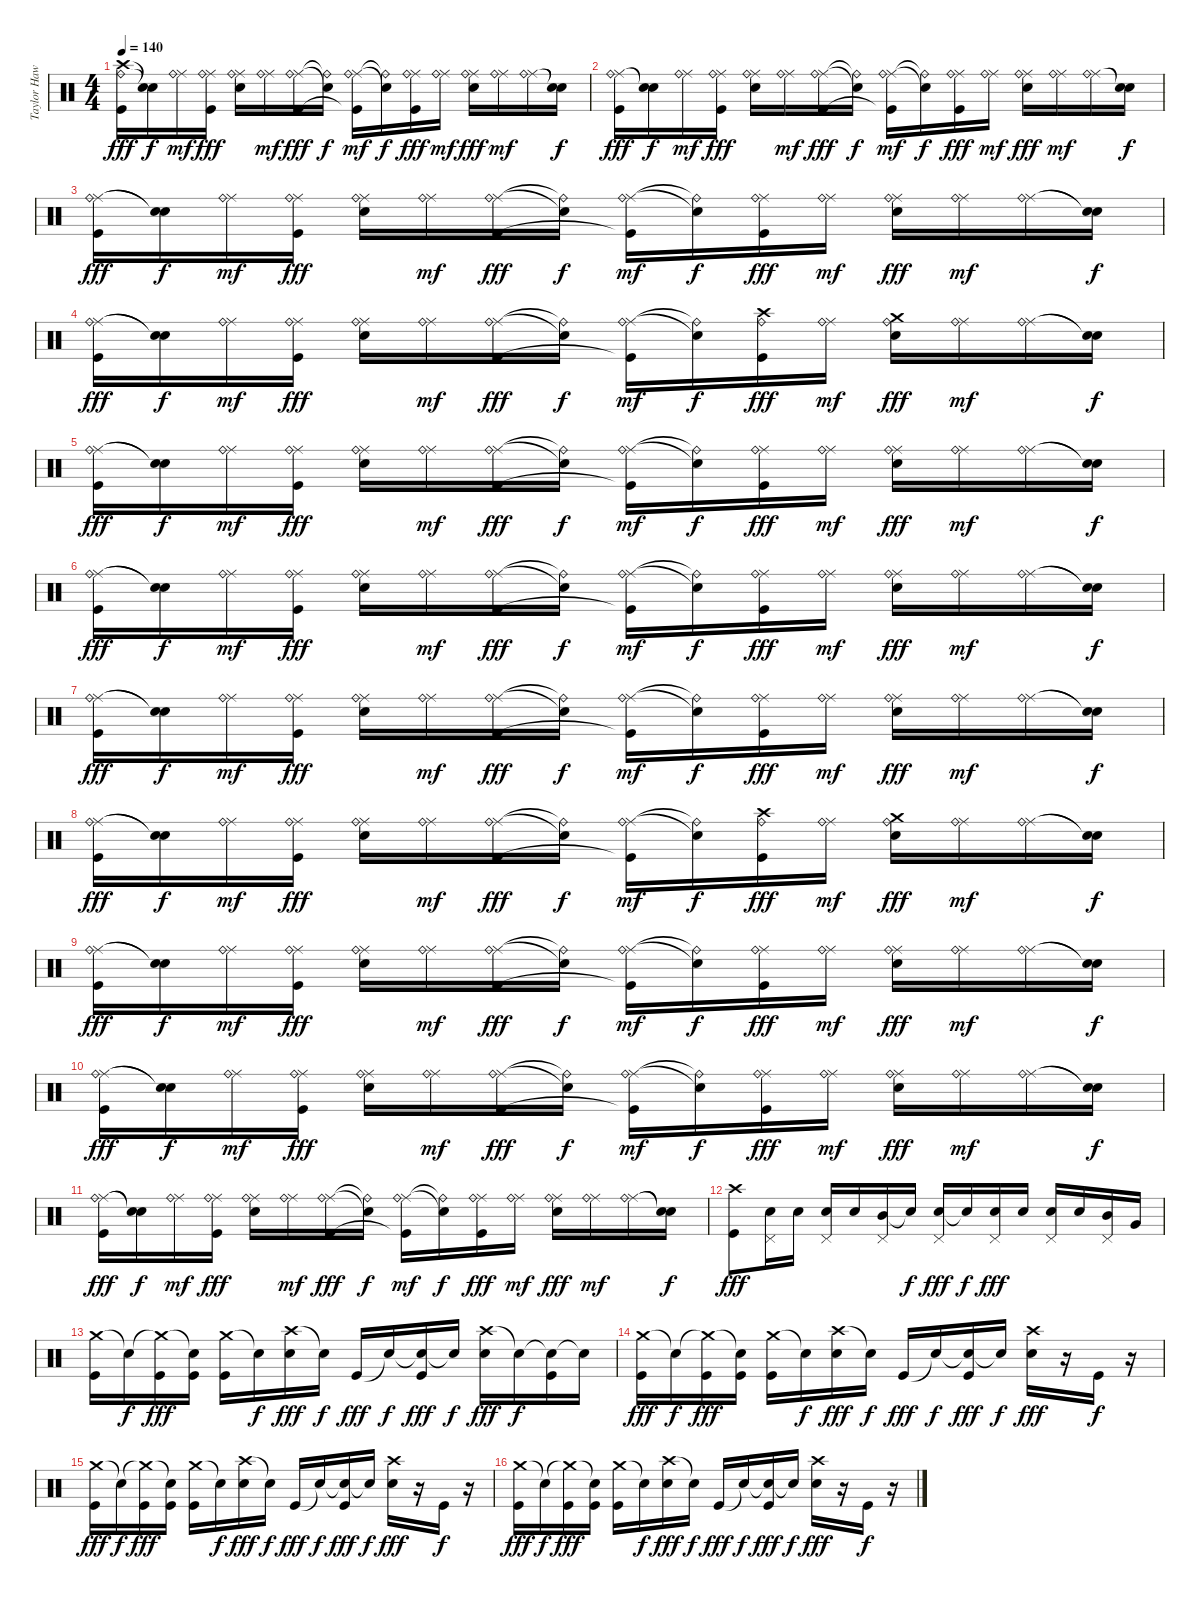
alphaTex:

\track ("Taylor Hawkings (Batería)" "Taylor Haw") {instrument percussion}
\staff {score}
\articulation defaults
\ts (4 4)
\tempo 140
\clef neutral
\ks c
("Crash high (hit)" "Ride (bell)" "Kick (hit)").16{dy fff} ("Snare (hit)"{t} "Snare (hit)"{t}).16{dy f} ("Ride (middle)" "Ride (bell)").16{dy mf} ("Ride (middle)" "Ride (bell)" "Kick (hit)").16{dy fff} ("Ride (middle)" "Ride (bell)" "Electric Snare (hit)").16 ("Ride (middle)" "Ride (bell)").16{dy mf} ("Ride (middle)" "Ride (bell)" "Kick (hit)").16{dy fff} ("Snare (hit)"{t} "Ride (bell)"{t}).16{dy f} ("Ride (middle)" "Ride (bell)" "Kick (hit)"{t}).16{dy mf} ("Snare (hit)"{t} "Ride (bell)"{t}).16{dy f} ("Ride (middle)" "Ride (bell)" "Kick (hit)").16{dy fff} ("Ride (middle)" "Ride (bell)").16{dy mf} ("Ride (middle)" "Ride (bell)" "Electric Snare (hit)").16{dy fff} ("Ride (middle)" "Ride (bell)").16{dy mf} ("Ride (middle)" "Ride (bell)").16 ("Snare (hit)"{t} "Snare (hit)"{t}).16{dy f} |
("Ride (middle)" "Ride (bell)" "Kick (hit)").16{dy fff} ("Snare (hit)"{t} "Snare (hit)"{t}).16{dy f} ("Ride (middle)" "Ride (bell)").16{dy mf} ("Ride (middle)" "Ride (bell)" "Kick (hit)").16{dy fff} ("Ride (middle)" "Ride (bell)" "Electric Snare (hit)").16 ("Ride (middle)" "Ride (bell)").16{dy mf} ("Ride (middle)" "Ride (bell)" "Kick (hit)").16{dy fff} ("Snare (hit)"{t} "Ride (bell)"{t}).16{dy f} ("Ride (middle)" "Ride (bell)" "Kick (hit)"{t}).16{dy mf} ("Snare (hit)"{t} "Ride (bell)"{t}).16{dy f} ("Ride (middle)" "Ride (bell)" "Kick (hit)").16{dy fff} ("Ride (middle)" "Ride (bell)").16{dy mf} ("Ride (middle)" "Ride (bell)" "Electric Snare (hit)").16{dy fff} ("Ride (middle)" "Ride (bell)").16{dy mf} ("Ride (middle)" "Ride (bell)").16 ("Snare (hit)"{t} "Snare (hit)"{t}).16{dy f} |
("Ride (middle)" "Ride (bell)" "Kick (hit)").16{dy fff} ("Snare (hit)"{t} "Snare (hit)"{t}).16{dy f} ("Ride (middle)" "Ride (bell)").16{dy mf} ("Ride (middle)" "Ride (bell)" "Kick (hit)").16{dy fff} ("Ride (middle)" "Ride (bell)" "Electric Snare (hit)").16 ("Ride (middle)" "Ride (bell)").16{dy mf} ("Ride (middle)" "Ride (bell)" "Kick (hit)").16{dy fff} ("Snare (hit)"{t} "Ride (bell)"{t}).16{dy f} ("Ride (middle)" "Ride (bell)" "Kick (hit)"{t}).16{dy mf} ("Snare (hit)"{t} "Ride (bell)"{t}).16{dy f} ("Ride (middle)" "Ride (bell)" "Kick (hit)").16{dy fff} ("Ride (middle)" "Ride (bell)").16{dy mf} ("Ride (middle)" "Ride (bell)" "Electric Snare (hit)").16{dy fff} ("Ride (middle)" "Ride (bell)").16{dy mf} ("Ride (middle)" "Ride (bell)").16 ("Snare (hit)"{t} "Snare (hit)"{t}).16{dy f} |
("Ride (middle)" "Ride (bell)" "Kick (hit)").16{dy fff} ("Snare (hit)"{t} "Snare (hit)"{t}).16{dy f} ("Ride (middle)" "Ride (bell)").16{dy mf} ("Ride (middle)" "Ride (bell)" "Kick (hit)").16{dy fff} ("Ride (middle)" "Ride (bell)" "Electric Snare (hit)").16 ("Ride (middle)" "Ride (bell)").16{dy mf} ("Ride (middle)" "Ride (bell)" "Kick (hit)").16{dy fff} ("Snare (hit)"{t} "Ride (bell)"{t}).16{dy f} ("Ride (middle)" "Ride (bell)" "Kick (hit)"{t}).16{dy mf} ("Snare (hit)"{t} "Ride (bell)"{t}).16{dy f} ("Crash high (hit)" "Ride (bell)" "Kick (hit)").16{dy fff} ("Ride (middle)" "Ride (bell)").16{dy mf} ("Crash medium (hit)" "Ride (bell)" "Electric Snare (hit)").16{dy fff} ("Ride (middle)" "Ride (bell)").16{dy mf} ("Ride (middle)" "Ride (bell)").16 ("Snare (hit)"{t} "Snare (hit)"{t}).16{dy f} |
("Ride (middle)" "Ride (bell)" "Kick (hit)").16{dy fff} ("Snare (hit)"{t} "Snare (hit)"{t}).16{dy f} ("Ride (middle)" "Ride (bell)").16{dy mf} ("Ride (middle)" "Ride (bell)" "Kick (hit)").16{dy fff} ("Ride (middle)" "Ride (bell)" "Electric Snare (hit)").16 ("Ride (middle)" "Ride (bell)").16{dy mf} ("Ride (middle)" "Ride (bell)" "Kick (hit)").16{dy fff} ("Snare (hit)"{t} "Ride (bell)"{t}).16{dy f} ("Ride (middle)" "Ride (bell)" "Kick (hit)"{t}).16{dy mf} ("Snare (hit)"{t} "Ride (bell)"{t}).16{dy f} ("Ride (middle)" "Ride (bell)" "Kick (hit)").16{dy fff} ("Ride (middle)" "Ride (bell)").16{dy mf} ("Ride (middle)" "Ride (bell)" "Electric Snare (hit)").16{dy fff} ("Ride (middle)" "Ride (bell)").16{dy mf} ("Ride (middle)" "Ride (bell)").16 ("Snare (hit)"{t} "Snare (hit)"{t}).16{dy f} |
("Ride (middle)" "Ride (bell)" "Kick (hit)").16{dy fff} ("Snare (hit)"{t} "Snare (hit)"{t}).16{dy f} ("Ride (middle)" "Ride (bell)").16{dy mf} ("Ride (middle)" "Ride (bell)" "Kick (hit)").16{dy fff} ("Ride (middle)" "Ride (bell)" "Electric Snare (hit)").16 ("Ride (middle)" "Ride (bell)").16{dy mf} ("Ride (middle)" "Ride (bell)" "Kick (hit)").16{dy fff} ("Snare (hit)"{t} "Ride (bell)"{t}).16{dy f} ("Ride (middle)" "Ride (bell)" "Kick (hit)"{t}).16{dy mf} ("Snare (hit)"{t} "Ride (bell)"{t}).16{dy f} ("Ride (middle)" "Ride (bell)" "Kick (hit)").16{dy fff} ("Ride (middle)" "Ride (bell)").16{dy mf} ("Ride (middle)" "Ride (bell)" "Electric Snare (hit)").16{dy fff} ("Ride (middle)" "Ride (bell)").16{dy mf} ("Ride (middle)" "Ride (bell)").16 ("Snare (hit)"{t} "Snare (hit)"{t}).16{dy f} |
("Ride (middle)" "Ride (bell)" "Kick (hit)").16{dy fff} ("Snare (hit)"{t} "Snare (hit)"{t}).16{dy f} ("Ride (middle)" "Ride (bell)").16{dy mf} ("Ride (middle)" "Ride (bell)" "Kick (hit)").16{dy fff} ("Ride (middle)" "Ride (bell)" "Electric Snare (hit)").16 ("Ride (middle)" "Ride (bell)").16{dy mf} ("Ride (middle)" "Ride (bell)" "Kick (hit)").16{dy fff} ("Snare (hit)"{t} "Ride (bell)"{t}).16{dy f} ("Ride (middle)" "Ride (bell)" "Kick (hit)"{t}).16{dy mf} ("Snare (hit)"{t} "Ride (bell)"{t}).16{dy f} ("Ride (middle)" "Ride (bell)" "Kick (hit)").16{dy fff} ("Ride (middle)" "Ride (bell)").16{dy mf} ("Ride (middle)" "Ride (bell)" "Electric Snare (hit)").16{dy fff} ("Ride (middle)" "Ride (bell)").16{dy mf} ("Ride (middle)" "Ride (bell)").16 ("Snare (hit)"{t} "Snare (hit)"{t}).16{dy f} |
("Ride (middle)" "Ride (bell)" "Kick (hit)").16{dy fff} ("Snare (hit)"{t} "Snare (hit)"{t}).16{dy f} ("Ride (middle)" "Ride (bell)").16{dy mf} ("Ride (middle)" "Ride (bell)" "Kick (hit)").16{dy fff} ("Ride (middle)" "Ride (bell)" "Electric Snare (hit)").16 ("Ride (middle)" "Ride (bell)").16{dy mf} ("Ride (middle)" "Ride (bell)" "Kick (hit)").16{dy fff} ("Snare (hit)"{t} "Ride (bell)"{t}).16{dy f} ("Ride (middle)" "Ride (bell)" "Kick (hit)"{t}).16{dy mf} ("Snare (hit)"{t} "Ride (bell)"{t}).16{dy f} ("Crash high (hit)" "Ride (bell)" "Kick (hit)").16{dy fff} ("Ride (middle)" "Ride (bell)").16{dy mf} ("Crash medium (hit)" "Ride (bell)" "Electric Snare (hit)").16{dy fff} ("Ride (middle)" "Ride (bell)").16{dy mf} ("Ride (middle)" "Ride (bell)").16 ("Snare (hit)"{t} "Snare (hit)"{t}).16{dy f} |
("Ride (middle)" "Ride (bell)" "Kick (hit)").16{dy fff} ("Snare (hit)"{t} "Snare (hit)"{t}).16{dy f} ("Ride (middle)" "Ride (bell)").16{dy mf} ("Ride (middle)" "Ride (bell)" "Kick (hit)").16{dy fff} ("Ride (middle)" "Ride (bell)" "Electric Snare (hit)").16 ("Ride (middle)" "Ride (bell)").16{dy mf} ("Ride (middle)" "Ride (bell)" "Kick (hit)").16{dy fff} ("Snare (hit)"{t} "Ride (bell)"{t}).16{dy f} ("Ride (middle)" "Ride (bell)" "Kick (hit)"{t}).16{dy mf} ("Snare (hit)"{t} "Ride (bell)"{t}).16{dy f} ("Ride (middle)" "Ride (bell)" "Kick (hit)").16{dy fff} ("Ride (middle)" "Ride (bell)").16{dy mf} ("Ride (middle)" "Ride (bell)" "Electric Snare (hit)").16{dy fff} ("Ride (middle)" "Ride (bell)").16{dy mf} ("Ride (middle)" "Ride (bell)").16 ("Snare (hit)"{t} "Snare (hit)"{t}).16{dy f} |
("Ride (middle)" "Ride (bell)" "Kick (hit)").16{dy fff} ("Snare (hit)"{t} "Snare (hit)"{t}).16{dy f} ("Ride (middle)" "Ride (bell)").16{dy mf} ("Ride (middle)" "Ride (bell)" "Kick (hit)").16{dy fff} ("Ride (middle)" "Ride (bell)" "Electric Snare (hit)").16 ("Ride (middle)" "Ride (bell)").16{dy mf} ("Ride (middle)" "Ride (bell)" "Kick (hit)").16{dy fff} ("Snare (hit)"{t} "Ride (bell)"{t}).16{dy f} ("Ride (middle)" "Ride (bell)" "Kick (hit)"{t}).16{dy mf} ("Snare (hit)"{t} "Ride (bell)"{t}).16{dy f} ("Ride (middle)" "Ride (bell)" "Kick (hit)").16{dy fff} ("Ride (middle)" "Ride (bell)").16{dy mf} ("Ride (middle)" "Ride (bell)" "Electric Snare (hit)").16{dy fff} ("Ride (middle)" "Ride (bell)").16{dy mf} ("Ride (middle)" "Ride (bell)").16 ("Snare (hit)"{t} "Snare (hit)"{t}).16{dy f} |
("Ride (middle)" "Ride (bell)" "Kick (hit)").16{dy fff} ("Snare (hit)"{t} "Snare (hit)"{t}).16{dy f} ("Ride (middle)" "Ride (bell)").16{dy mf} ("Ride (middle)" "Ride (bell)" "Kick (hit)").16{dy fff} ("Ride (middle)" "Ride (bell)" "Electric Snare (hit)").16 ("Ride (middle)" "Ride (bell)").16{dy mf} ("Ride (middle)" "Ride (bell)" "Kick (hit)").16{dy fff} ("Snare (hit)"{t} "Ride (bell)"{t}).16{dy f} ("Ride (middle)" "Ride (bell)" "Kick (hit)"{t}).16{dy mf} ("Snare (hit)"{t} "Ride (bell)"{t}).16{dy f} ("Ride (middle)" "Ride (bell)" "Kick (hit)").16{dy fff} ("Ride (middle)" "Ride (bell)").16{dy mf} ("Ride (middle)" "Ride (bell)" "Electric Snare (hit)").16{dy fff} ("Ride (middle)" "Ride (bell)").16{dy mf} ("Ride (middle)" "Ride (bell)").16 ("Snare (hit)"{t} "Snare (hit)"{t}).16{dy f} |
("Crash high (hit)" "Kick (hit)").8{dy fff} ("Electric Snare (hit)" "Pedal Hi-Hat (hit)").16 "Electric Snare (hit)".16 ("Electric Snare (hit)" "Pedal Hi-Hat (hit)").16 "Electric Snare (hit)".16 ("Mid Tom (hit)" "Pedal Hi-Hat (hit)").16 "Snare (hit)"{t}.16{dy f} ("Electric Snare (hit)" "Pedal Hi-Hat (hit)").16{dy fff} "Snare (hit)"{t}.16{dy f} ("Electric Snare (hit)" "Pedal Hi-Hat (hit)").16{dy fff} "Electric Snare (hit)".16 ("Electric Snare (hit)" "Pedal Hi-Hat (hit)").16 "Electric Snare (hit)".16 ("Mid Tom (hit)" "Pedal Hi-Hat (hit)").16 "Very Low Tom (hit)".16 |
("Crash medium (hit)" "Kick (hit)").16 "Snare (hit)"{t}.16{dy f} ("Crash medium (hit)"{t} "Kick (hit)").16{dy fff} ("Snare (hit)"{t} "Kick (hit)").16 ("Crash medium (hit)" "Kick (hit)").16 "Snare (hit)"{t}.16{dy f} ("Crash high (hit)" "Electric Snare (hit)").16{dy fff} "Snare (hit)"{t}.16{dy f} "Kick (hit)".16{dy fff} "Snare (hit)"{t}.16{dy f} ("Snare (hit)"{t} "Kick (hit)").16{dy fff} "Snare (hit)"{t}.16{dy f} ("Crash high (hit)" "Electric Snare (hit)").16{dy fff} "Snare (hit)"{t}.16{dy f} ("Snare (hit)"{t} "Kick (hit)").16 "Snare (hit)"{t}.16 |
("Crash medium (hit)" "Kick (hit)").16{dy fff} "Snare (hit)"{t}.16{dy f} ("Crash medium (hit)"{t} "Kick (hit)").16{dy fff} ("Snare (hit)"{t} "Kick (hit)").16 ("Crash medium (hit)" "Kick (hit)").16 "Snare (hit)"{t}.16{dy f} ("Crash high (hit)" "Electric Snare (hit)").16{dy fff} "Snare (hit)"{t}.16{dy f} "Kick (hit)".16{dy fff} "Snare (hit)"{t}.16{dy f} ("Snare (hit)"{t} "Kick (hit)").16{dy fff} "Snare (hit)"{t}.16{dy f} ("Crash high (hit)" "Electric Snare (hit)").16{dy fff} r.16 "Kick (hit)".16{dy f} r.16 |
("Crash medium (hit)" "Kick (hit)").16{dy fff} "Snare (hit)"{t}.16{dy f} ("Crash medium (hit)"{t} "Kick (hit)").16{dy fff} ("Snare (hit)"{t} "Kick (hit)").16 ("Crash medium (hit)" "Kick (hit)").16 "Snare (hit)"{t}.16{dy f} ("Crash high (hit)" "Electric Snare (hit)").16{dy fff} "Snare (hit)"{t}.16{dy f} "Kick (hit)".16{dy fff} "Snare (hit)"{t}.16{dy f} ("Snare (hit)"{t} "Kick (hit)").16{dy fff} "Snare (hit)"{t}.16{dy f} ("Crash high (hit)" "Electric Snare (hit)").16{dy fff} r.16 "Kick (hit)".16{dy f} r.16 |
("Crash medium (hit)" "Kick (hit)").16{dy fff} "Snare (hit)"{t}.16{dy f} ("Crash medium (hit)"{t} "Kick (hit)").16{dy fff} ("Snare (hit)"{t} "Kick (hit)").16 ("Crash medium (hit)" "Kick (hit)").16 "Snare (hit)"{t}.16{dy f} ("Crash high (hit)" "Electric Snare (hit)").16{dy fff} "Snare (hit)"{t}.16{dy f} "Kick (hit)".16{dy fff} "Snare (hit)"{t}.16{dy f} ("Snare (hit)"{t} "Kick (hit)").16{dy fff} "Snare (hit)"{t}.16{dy f} ("Crash high (hit)" "Electric Snare (hit)").16{dy fff} r.16 "Kick (hit)".16{dy f} r.16
